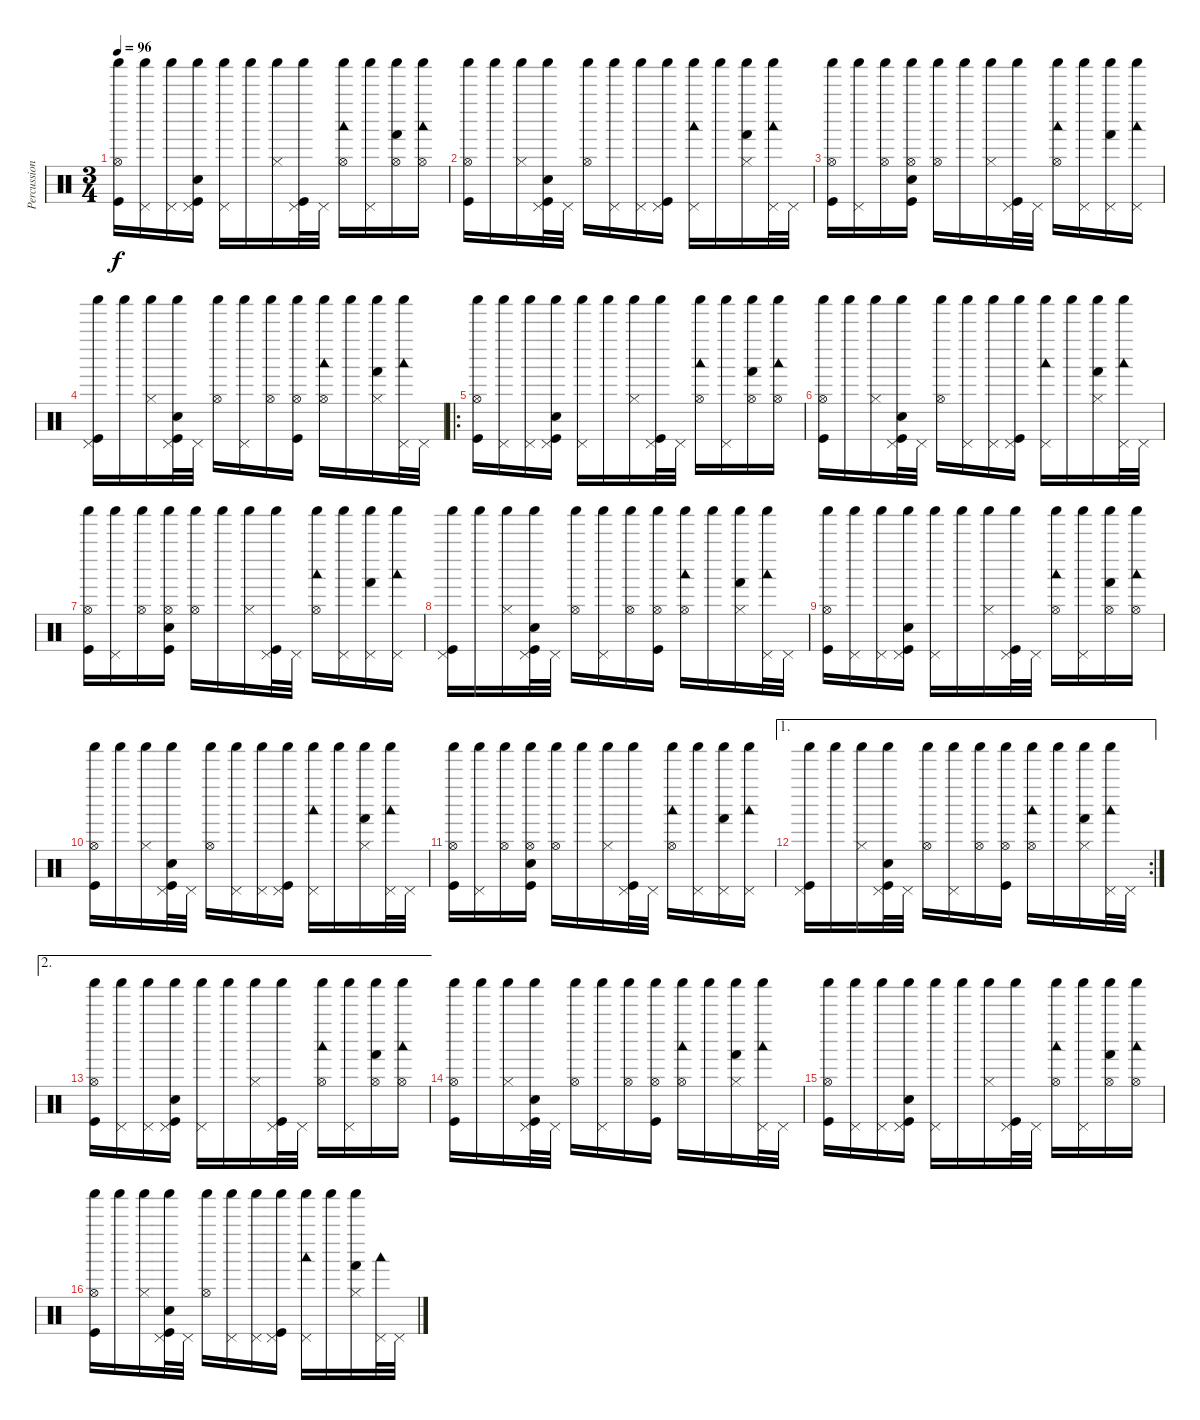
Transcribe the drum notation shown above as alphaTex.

\track ("Percussions" "Percussion") {instrument percussion}
\staff {score}
\articulation defaults
\ts (3 4)
\tempo 96
\clef neutral
\ks c
("Hi-Hat (open)" "Shaker (hit)" "Kick (hit)").16{dy f} ("Pedal Hi-Hat (hit)" "Shaker (hit)").16 ("Pedal Hi-Hat (hit)" "Shaker (hit)").16 ("Pedal Hi-Hat (hit)" "Shaker (hit)" "Metronome (bell)" "Kick (hit)").16 ("Pedal Hi-Hat (hit)" "Shaker (hit)").16 "Shaker (hit)".16 ("Hi-Hat (closed)" "Shaker (hit)").16 ("Pedal Hi-Hat (hit)" "Shaker (hit)" "Kick (hit)").32 "Pedal Hi-Hat (hit)".32 ("Hi-Hat (open)" "Shaker (hit)" "Woodblock low (hit)").16 ("Pedal Hi-Hat (hit)" "Shaker (hit)").16 ("Hi-Hat (open)" "Shaker (hit)" "Hand (hit)").16 ("Hi-Hat (open)" "Shaker (hit)" "Woodblock low (hit)").16 |
("Hi-Hat (open)" "Shaker (hit)" "Kick (hit)").16 "Shaker (hit)".16 ("Hi-Hat (closed)" "Shaker (hit)").16 ("Pedal Hi-Hat (hit)" "Shaker (hit)" "Metronome (bell)" "Kick (hit)").32 "Pedal Hi-Hat (hit)".32 ("Hi-Hat (open)" "Shaker (hit)").16 ("Pedal Hi-Hat (hit)" "Shaker (hit)").16 ("Pedal Hi-Hat (hit)" "Shaker (hit)").16 ("Pedal Hi-Hat (hit)" "Shaker (hit)" "Kick (hit)").16 ("Pedal Hi-Hat (hit)" "Shaker (hit)" "Woodblock low (hit)").16 "Shaker (hit)".16 ("Hi-Hat (closed)" "Shaker (hit)" "Hand (hit)").16 ("Pedal Hi-Hat (hit)" "Shaker (hit)" "Woodblock low (hit)").32 "Pedal Hi-Hat (hit)".32 |
("Hi-Hat (open)" "Shaker (hit)" "Kick (hit)").16 ("Pedal Hi-Hat (hit)" "Shaker (hit)").16 ("Hi-Hat (open)" "Shaker (hit)").16 ("Hi-Hat (open)" "Shaker (hit)" "Metronome (bell)" "Kick (hit)").16 ("Hi-Hat (open)" "Shaker (hit)").16 "Shaker (hit)".16 ("Hi-Hat (closed)" "Shaker (hit)").16 ("Pedal Hi-Hat (hit)" "Shaker (hit)" "Kick (hit)").32 "Pedal Hi-Hat (hit)".32 ("Hi-Hat (open)" "Shaker (hit)" "Woodblock low (hit)").16 ("Pedal Hi-Hat (hit)" "Shaker (hit)").16 ("Pedal Hi-Hat (hit)" "Shaker (hit)" "Hand (hit)").16 ("Pedal Hi-Hat (hit)" "Shaker (hit)" "Woodblock low (hit)").16 |
("Pedal Hi-Hat (hit)" "Shaker (hit)" "Kick (hit)").16 "Shaker (hit)".16 ("Hi-Hat (closed)" "Shaker (hit)").16 ("Pedal Hi-Hat (hit)" "Shaker (hit)" "Metronome (bell)" "Kick (hit)").32 "Pedal Hi-Hat (hit)".32 ("Hi-Hat (open)" "Shaker (hit)").16 ("Pedal Hi-Hat (hit)" "Shaker (hit)").16 ("Hi-Hat (open)" "Shaker (hit)").16 ("Hi-Hat (open)" "Shaker (hit)" "Kick (hit)").16 ("Hi-Hat (open)" "Shaker (hit)" "Woodblock low (hit)").16 "Shaker (hit)".16 ("Hi-Hat (closed)" "Shaker (hit)" "Hand (hit)").16 ("Pedal Hi-Hat (hit)" "Shaker (hit)" "Woodblock low (hit)").32 "Pedal Hi-Hat (hit)".32 |
\ro
("Hi-Hat (open)" "Shaker (hit)" "Kick (hit)").16 ("Pedal Hi-Hat (hit)" "Shaker (hit)").16 ("Pedal Hi-Hat (hit)" "Shaker (hit)").16 ("Pedal Hi-Hat (hit)" "Shaker (hit)" "Metronome (bell)" "Kick (hit)").16 ("Pedal Hi-Hat (hit)" "Shaker (hit)").16 "Shaker (hit)".16 ("Hi-Hat (closed)" "Shaker (hit)").16 ("Pedal Hi-Hat (hit)" "Shaker (hit)" "Kick (hit)").32 "Pedal Hi-Hat (hit)".32 ("Hi-Hat (open)" "Shaker (hit)" "Woodblock low (hit)").16 ("Pedal Hi-Hat (hit)" "Shaker (hit)").16 ("Hi-Hat (open)" "Shaker (hit)" "Hand (hit)").16 ("Hi-Hat (open)" "Shaker (hit)" "Woodblock low (hit)").16 |
("Hi-Hat (open)" "Shaker (hit)" "Kick (hit)").16 "Shaker (hit)".16 ("Hi-Hat (closed)" "Shaker (hit)").16 ("Pedal Hi-Hat (hit)" "Shaker (hit)" "Metronome (bell)" "Kick (hit)").32 "Pedal Hi-Hat (hit)".32 ("Hi-Hat (open)" "Shaker (hit)").16 ("Pedal Hi-Hat (hit)" "Shaker (hit)").16 ("Pedal Hi-Hat (hit)" "Shaker (hit)").16 ("Pedal Hi-Hat (hit)" "Shaker (hit)" "Kick (hit)").16 ("Pedal Hi-Hat (hit)" "Shaker (hit)" "Woodblock low (hit)").16 "Shaker (hit)".16 ("Hi-Hat (closed)" "Shaker (hit)" "Hand (hit)").16 ("Pedal Hi-Hat (hit)" "Shaker (hit)" "Woodblock low (hit)").32 "Pedal Hi-Hat (hit)".32 |
("Hi-Hat (open)" "Shaker (hit)" "Kick (hit)").16 ("Pedal Hi-Hat (hit)" "Shaker (hit)").16 ("Hi-Hat (open)" "Shaker (hit)").16 ("Hi-Hat (open)" "Shaker (hit)" "Metronome (bell)" "Kick (hit)").16 ("Hi-Hat (open)" "Shaker (hit)").16 "Shaker (hit)".16 ("Hi-Hat (closed)" "Shaker (hit)").16 ("Pedal Hi-Hat (hit)" "Shaker (hit)" "Kick (hit)").32 "Pedal Hi-Hat (hit)".32 ("Hi-Hat (open)" "Shaker (hit)" "Woodblock low (hit)").16 ("Pedal Hi-Hat (hit)" "Shaker (hit)").16 ("Pedal Hi-Hat (hit)" "Shaker (hit)" "Hand (hit)").16 ("Pedal Hi-Hat (hit)" "Shaker (hit)" "Woodblock low (hit)").16 |
("Pedal Hi-Hat (hit)" "Shaker (hit)" "Kick (hit)").16 "Shaker (hit)".16 ("Hi-Hat (closed)" "Shaker (hit)").16 ("Pedal Hi-Hat (hit)" "Shaker (hit)" "Metronome (bell)" "Kick (hit)").32 "Pedal Hi-Hat (hit)".32 ("Hi-Hat (open)" "Shaker (hit)").16 ("Pedal Hi-Hat (hit)" "Shaker (hit)").16 ("Hi-Hat (open)" "Shaker (hit)").16 ("Hi-Hat (open)" "Shaker (hit)" "Kick (hit)").16 ("Hi-Hat (open)" "Shaker (hit)" "Woodblock low (hit)").16 "Shaker (hit)".16 ("Hi-Hat (closed)" "Shaker (hit)" "Hand (hit)").16 ("Pedal Hi-Hat (hit)" "Shaker (hit)" "Woodblock low (hit)").32 "Pedal Hi-Hat (hit)".32 |
("Hi-Hat (open)" "Shaker (hit)" "Kick (hit)").16 ("Pedal Hi-Hat (hit)" "Shaker (hit)").16 ("Pedal Hi-Hat (hit)" "Shaker (hit)").16 ("Pedal Hi-Hat (hit)" "Shaker (hit)" "Metronome (bell)" "Kick (hit)").16 ("Pedal Hi-Hat (hit)" "Shaker (hit)").16 "Shaker (hit)".16 ("Hi-Hat (closed)" "Shaker (hit)").16 ("Pedal Hi-Hat (hit)" "Shaker (hit)" "Kick (hit)").32 "Pedal Hi-Hat (hit)".32 ("Hi-Hat (open)" "Shaker (hit)" "Woodblock low (hit)").16 ("Pedal Hi-Hat (hit)" "Shaker (hit)").16 ("Hi-Hat (open)" "Shaker (hit)" "Hand (hit)").16 ("Hi-Hat (open)" "Shaker (hit)" "Woodblock low (hit)").16 |
("Hi-Hat (open)" "Shaker (hit)" "Kick (hit)").16 "Shaker (hit)".16 ("Hi-Hat (closed)" "Shaker (hit)").16 ("Pedal Hi-Hat (hit)" "Shaker (hit)" "Metronome (bell)" "Kick (hit)").32 "Pedal Hi-Hat (hit)".32 ("Hi-Hat (open)" "Shaker (hit)").16 ("Pedal Hi-Hat (hit)" "Shaker (hit)").16 ("Pedal Hi-Hat (hit)" "Shaker (hit)").16 ("Pedal Hi-Hat (hit)" "Shaker (hit)" "Kick (hit)").16 ("Pedal Hi-Hat (hit)" "Shaker (hit)" "Woodblock low (hit)").16 "Shaker (hit)".16 ("Hi-Hat (closed)" "Shaker (hit)" "Hand (hit)").16 ("Pedal Hi-Hat (hit)" "Shaker (hit)" "Woodblock low (hit)").32 "Pedal Hi-Hat (hit)".32 |
("Hi-Hat (open)" "Shaker (hit)" "Kick (hit)").16 ("Pedal Hi-Hat (hit)" "Shaker (hit)").16 ("Hi-Hat (open)" "Shaker (hit)").16 ("Hi-Hat (open)" "Shaker (hit)" "Metronome (bell)" "Kick (hit)").16 ("Hi-Hat (open)" "Shaker (hit)").16 "Shaker (hit)".16 ("Hi-Hat (closed)" "Shaker (hit)").16 ("Pedal Hi-Hat (hit)" "Shaker (hit)" "Kick (hit)").32 "Pedal Hi-Hat (hit)".32 ("Hi-Hat (open)" "Shaker (hit)" "Woodblock low (hit)").16 ("Pedal Hi-Hat (hit)" "Shaker (hit)").16 ("Pedal Hi-Hat (hit)" "Shaker (hit)" "Hand (hit)").16 ("Pedal Hi-Hat (hit)" "Shaker (hit)" "Woodblock low (hit)").16 |
\ae 1
\rc 2
("Pedal Hi-Hat (hit)" "Shaker (hit)" "Kick (hit)").16 "Shaker (hit)".16 ("Hi-Hat (closed)" "Shaker (hit)").16 ("Pedal Hi-Hat (hit)" "Shaker (hit)" "Metronome (bell)" "Kick (hit)").32 "Pedal Hi-Hat (hit)".32 ("Hi-Hat (open)" "Shaker (hit)").16 ("Pedal Hi-Hat (hit)" "Shaker (hit)").16 ("Hi-Hat (open)" "Shaker (hit)").16 ("Hi-Hat (open)" "Shaker (hit)" "Kick (hit)").16 ("Hi-Hat (open)" "Shaker (hit)" "Woodblock low (hit)").16 "Shaker (hit)".16 ("Hi-Hat (closed)" "Shaker (hit)" "Hand (hit)").16 ("Pedal Hi-Hat (hit)" "Shaker (hit)" "Woodblock low (hit)").32 "Pedal Hi-Hat (hit)".32 |
\ae 2
("Hi-Hat (open)" "Shaker (hit)" "Kick (hit)").16 ("Pedal Hi-Hat (hit)" "Shaker (hit)").16 ("Pedal Hi-Hat (hit)" "Shaker (hit)").16 ("Pedal Hi-Hat (hit)" "Shaker (hit)" "Metronome (bell)" "Kick (hit)").16 ("Pedal Hi-Hat (hit)" "Shaker (hit)").16 "Shaker (hit)".16 ("Hi-Hat (closed)" "Shaker (hit)").16 ("Pedal Hi-Hat (hit)" "Shaker (hit)" "Kick (hit)").32 "Pedal Hi-Hat (hit)".32 ("Hi-Hat (open)" "Shaker (hit)" "Woodblock low (hit)").16 ("Pedal Hi-Hat (hit)" "Shaker (hit)").16 ("Hi-Hat (open)" "Shaker (hit)" "Hand (hit)").16 ("Hi-Hat (open)" "Shaker (hit)" "Woodblock low (hit)").16 |
("Hi-Hat (open)" "Shaker (hit)" "Kick (hit)").16 "Shaker (hit)".16 ("Hi-Hat (closed)" "Shaker (hit)").16 ("Pedal Hi-Hat (hit)" "Shaker (hit)" "Metronome (bell)" "Kick (hit)").32 "Pedal Hi-Hat (hit)".32 ("Hi-Hat (open)" "Shaker (hit)").16 ("Pedal Hi-Hat (hit)" "Shaker (hit)").16 ("Hi-Hat (open)" "Shaker (hit)").16 ("Hi-Hat (open)" "Shaker (hit)" "Kick (hit)").16 ("Hi-Hat (open)" "Shaker (hit)" "Woodblock low (hit)").16 "Shaker (hit)".16 ("Hi-Hat (closed)" "Shaker (hit)" "Hand (hit)").16 ("Pedal Hi-Hat (hit)" "Shaker (hit)" "Woodblock low (hit)").32 "Pedal Hi-Hat (hit)".32 |
("Hi-Hat (open)" "Shaker (hit)" "Kick (hit)").16 ("Pedal Hi-Hat (hit)" "Shaker (hit)").16 ("Pedal Hi-Hat (hit)" "Shaker (hit)").16 ("Pedal Hi-Hat (hit)" "Shaker (hit)" "Metronome (bell)" "Kick (hit)").16 ("Pedal Hi-Hat (hit)" "Shaker (hit)").16 "Shaker (hit)".16 ("Hi-Hat (closed)" "Shaker (hit)").16 ("Pedal Hi-Hat (hit)" "Shaker (hit)" "Kick (hit)").32 "Pedal Hi-Hat (hit)".32 ("Hi-Hat (open)" "Shaker (hit)" "Woodblock low (hit)").16 ("Pedal Hi-Hat (hit)" "Shaker (hit)").16 ("Hi-Hat (open)" "Shaker (hit)" "Hand (hit)").16 ("Hi-Hat (open)" "Shaker (hit)" "Woodblock low (hit)").16 |
("Hi-Hat (open)" "Shaker (hit)" "Kick (hit)").16 "Shaker (hit)".16 ("Hi-Hat (closed)" "Shaker (hit)").16 ("Pedal Hi-Hat (hit)" "Shaker (hit)" "Metronome (bell)" "Kick (hit)").32 "Pedal Hi-Hat (hit)".32 ("Hi-Hat (open)" "Shaker (hit)").16 ("Pedal Hi-Hat (hit)" "Shaker (hit)").16 ("Pedal Hi-Hat (hit)" "Shaker (hit)").16 ("Pedal Hi-Hat (hit)" "Shaker (hit)" "Kick (hit)").16 ("Pedal Hi-Hat (hit)" "Shaker (hit)" "Woodblock low (hit)").16 "Shaker (hit)".16 ("Hi-Hat (closed)" "Shaker (hit)" "Hand (hit)").16 ("Pedal Hi-Hat (hit)" "Woodblock low (hit)").32 "Pedal Hi-Hat (hit)".32
